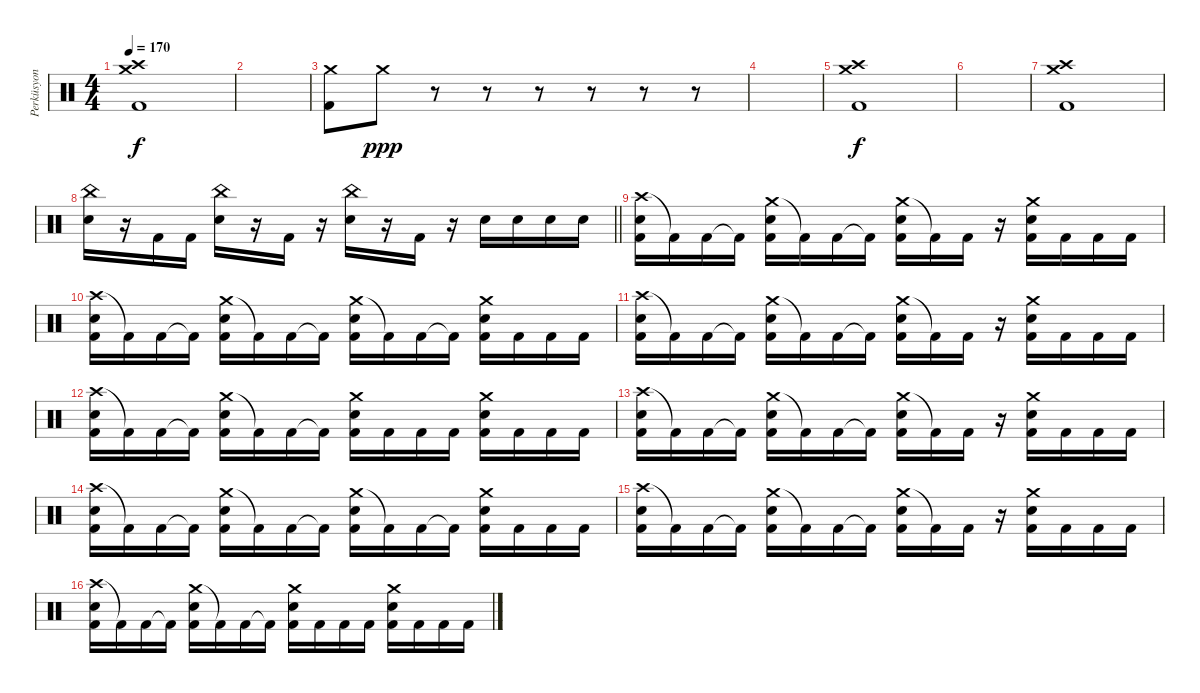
\track ("Perküsyon" "Perküsyon") {instrument percussion}
\staff {score}
\articulation defaults
\ts (4 4)
\section ("" "")
\tempo 170
\clef neutral
\ks c
("Crash high (hit)" "Crash medium (hit)" "Kick (hit) 2").1{dy f} |
|
("Crash medium (hit)" "Kick (hit) 2").8 "Crash medium (hit)".8{dy ppp} r.8 r.8 r.8 r.8 r.8 r.8 |
|
("Crash high (hit)" "Crash medium (hit)" "Kick (hit) 2").1{dy f} |
|
("Crash high (hit)" "Crash medium (hit)" "Kick (hit) 2").1 |
\barLineRight lightlight
("China (hit)" "Snare (hit) 2").16 r.16 "Kick (hit) 2".16 "Kick (hit) 2".16 ("China (hit)" "Snare (hit) 2").16 r.16 "Kick (hit) 2".16 r.16 ("China (hit)" "Snare (hit) 2").16 r.16 "Kick (hit) 2".16 r.16 "Snare (hit) 2".16 "Snare (hit) 2".16 "Snare (hit) 2".16 "Snare (hit) 2".16 |
\section ("" "")
("Crash high (hit)" "Snare (hit) 2" "Kick (hit) 2").16 "Kick (hit) 2"{t}.16 "Kick (hit) 2".16 "Kick (hit) 2"{t}.16 ("Crash medium (hit)" "Snare (hit) 2" "Kick (hit) 2").16 "Kick (hit) 2"{t}.16 "Kick (hit) 2".16 "Kick (hit) 2"{t}.16 ("Crash medium (hit)" "Snare (hit) 2" "Kick (hit) 2").16 "Kick (hit) 2"{t}.16 "Kick (hit) 2".16 r.16 ("Crash medium (hit)" "Snare (hit) 2" "Kick (hit) 2").16 "Kick (hit) 2".16 "Kick (hit) 2".16 "Kick (hit) 2".16 |
("Crash high (hit)" "Snare (hit) 2" "Kick (hit) 2").16 "Kick (hit) 2"{t}.16 "Kick (hit) 2".16 "Kick (hit) 2"{t}.16 ("Crash medium (hit)" "Snare (hit) 2" "Kick (hit) 2").16 "Kick (hit) 2"{t}.16 "Kick (hit) 2".16 "Kick (hit) 2"{t}.16 ("Crash medium (hit)" "Snare (hit) 2" "Kick (hit) 2").16 "Kick (hit) 2"{t}.16 "Kick (hit) 2".16 "Kick (hit) 2"{t}.16 ("Crash medium (hit)" "Snare (hit) 2" "Kick (hit) 2").16 "Kick (hit) 2".16 "Kick (hit) 2".16 "Kick (hit) 2".16 |
("Crash high (hit)" "Snare (hit) 2" "Kick (hit) 2").16 "Kick (hit) 2"{t}.16 "Kick (hit) 2".16 "Kick (hit) 2"{t}.16 ("Crash medium (hit)" "Snare (hit) 2" "Kick (hit) 2").16 "Kick (hit) 2"{t}.16 "Kick (hit) 2".16 "Kick (hit) 2"{t}.16 ("Crash medium (hit)" "Snare (hit) 2" "Kick (hit) 2").16 "Kick (hit) 2"{t}.16 "Kick (hit) 2".16 r.16 ("Crash medium (hit)" "Snare (hit) 2" "Kick (hit) 2").16 "Kick (hit) 2".16 "Kick (hit) 2".16 "Kick (hit) 2".16 |
("Crash high (hit)" "Snare (hit) 2" "Kick (hit) 2").16 "Kick (hit) 2"{t}.16 "Kick (hit) 2".16 "Kick (hit) 2"{t}.16 ("Crash medium (hit)" "Snare (hit) 2" "Kick (hit) 2").16 "Kick (hit) 2"{t}.16 "Kick (hit) 2".16 "Kick (hit) 2"{t}.16 ("Crash medium (hit)" "Snare (hit) 2" "Kick (hit) 2").16 "Kick (hit) 2".16 "Kick (hit) 2".16 "Kick (hit) 2".16 ("Crash medium (hit)" "Snare (hit) 2" "Kick (hit) 2").16 "Kick (hit) 2".16 "Kick (hit) 2".16 "Kick (hit) 2".16 |
("Crash high (hit)" "Snare (hit) 2" "Kick (hit) 2").16 "Kick (hit) 2"{t}.16 "Kick (hit) 2".16 "Kick (hit) 2"{t}.16 ("Crash medium (hit)" "Snare (hit) 2" "Kick (hit) 2").16 "Kick (hit) 2"{t}.16 "Kick (hit) 2".16 "Kick (hit) 2"{t}.16 ("Crash medium (hit)" "Snare (hit) 2" "Kick (hit) 2").16 "Kick (hit) 2"{t}.16 "Kick (hit) 2".16 r.16 ("Crash medium (hit)" "Snare (hit) 2" "Kick (hit) 2").16 "Kick (hit) 2".16 "Kick (hit) 2".16 "Kick (hit) 2".16 |
("Crash high (hit)" "Snare (hit) 2" "Kick (hit) 2").16 "Kick (hit) 2"{t}.16 "Kick (hit) 2".16 "Kick (hit) 2"{t}.16 ("Crash medium (hit)" "Snare (hit) 2" "Kick (hit) 2").16 "Kick (hit) 2"{t}.16 "Kick (hit) 2".16 "Kick (hit) 2"{t}.16 ("Crash medium (hit)" "Snare (hit) 2" "Kick (hit) 2").16 "Kick (hit) 2"{t}.16 "Kick (hit) 2".16 "Kick (hit) 2"{t}.16 ("Crash medium (hit)" "Snare (hit) 2" "Kick (hit) 2").16 "Kick (hit) 2".16 "Kick (hit) 2".16 "Kick (hit) 2".16 |
("Crash high (hit)" "Snare (hit) 2" "Kick (hit) 2").16 "Kick (hit) 2"{t}.16 "Kick (hit) 2".16 "Kick (hit) 2"{t}.16 ("Crash medium (hit)" "Snare (hit) 2" "Kick (hit) 2").16 "Kick (hit) 2"{t}.16 "Kick (hit) 2".16 "Kick (hit) 2"{t}.16 ("Crash medium (hit)" "Snare (hit) 2" "Kick (hit) 2").16 "Kick (hit) 2"{t}.16 "Kick (hit) 2".16 r.16 ("Crash medium (hit)" "Snare (hit) 2" "Kick (hit) 2").16 "Kick (hit) 2".16 "Kick (hit) 2".16 "Kick (hit) 2".16 |
("Crash high (hit)" "Snare (hit) 2" "Kick (hit) 2").16 "Kick (hit) 2"{t}.16 "Kick (hit) 2".16 "Kick (hit) 2"{t}.16 ("Crash medium (hit)" "Snare (hit) 2" "Kick (hit) 2").16 "Kick (hit) 2"{t}.16 "Kick (hit) 2".16 "Kick (hit) 2"{t}.16 ("Crash medium (hit)" "Snare (hit) 2" "Kick (hit) 2").16 "Kick (hit) 2".16 "Kick (hit) 2".16 "Kick (hit) 2".16 ("Crash medium (hit)" "Snare (hit) 2" "Kick (hit) 2").16 "Kick (hit) 2".16 "Kick (hit) 2".16 "Kick (hit) 2".16
